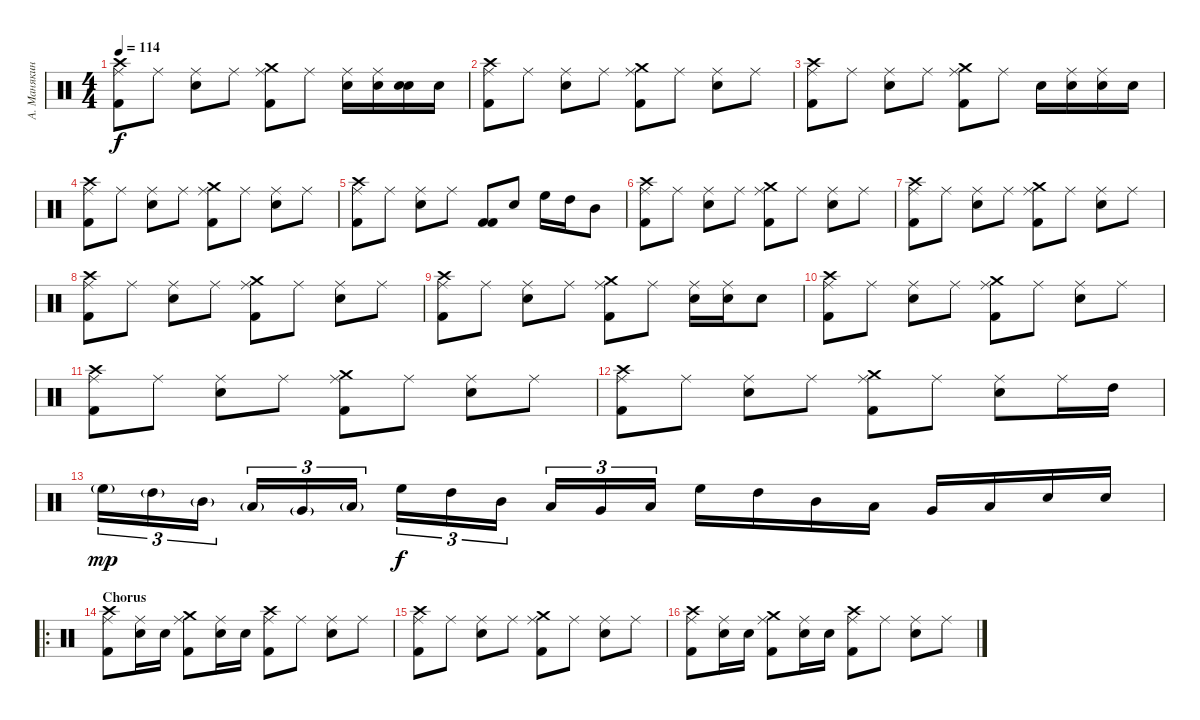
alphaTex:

\track ("А. Манякин" "А. Манякин") {instrument percussion}
\staff {score}
\articulation defaults
\ts (4 4)
\tempo 114
\clef neutral
\ks c
("Kick (hit) 2" "Crash high (hit)" "Ride (middle)").8{dy f} "Ride (middle)".8 ("Electric Snare (hit)" "Ride (middle)").8 "Ride (middle)".8 ("Kick (hit) 2" "Crash medium (hit)" "Ride (middle)").8 "Ride (middle)".8 ("Electric Snare (hit)" "Ride (middle)").16 ("Electric Snare (hit)" "Ride (middle)").16 ("Snare (hit)" "Electric Snare (hit)").16 "Electric Snare (hit)".16 |
("Kick (hit) 2" "Crash high (hit)" "Ride (middle)").8 "Ride (middle)".8 ("Electric Snare (hit)" "Ride (middle)").8 "Ride (middle)".8 ("Kick (hit) 2" "Crash medium (hit)" "Ride (middle)").8 "Ride (middle)".8 ("Electric Snare (hit)" "Ride (middle)").8 "Ride (middle)".8 |
("Kick (hit) 2" "Crash high (hit)" "Ride (middle)").8 "Ride (middle)".8 ("Electric Snare (hit)" "Ride (middle)").8 "Ride (middle)".8 ("Kick (hit) 2" "Crash medium (hit)" "Ride (middle)").8 "Ride (middle)".8 "Electric Snare (hit)".16 ("Electric Snare (hit)" "Ride (middle)").16 ("Electric Snare (hit)" "Ride (middle)").16 "Electric Snare (hit)".16 |
("Kick (hit) 2" "Crash high (hit)" "Ride (middle)").8 "Ride (middle)".8 ("Electric Snare (hit)" "Ride (middle)").8 "Ride (middle)".8 ("Kick (hit) 2" "Crash medium (hit)" "Ride (middle)").8 "Ride (middle)".8 ("Electric Snare (hit)" "Ride (middle)").8 "Ride (middle)".8 |
("Kick (hit) 2" "Crash high (hit)" "Ride (middle)").8 "Ride (middle)".8 ("Electric Snare (hit)" "Ride (middle)").8 "Ride (middle)".8 ("Kick (hit) 2" "Kick (hit) 2").8 "Electric Snare (hit)".8 "High Floor Tom (hit)".16 "High Tom (hit)".16 "Mid Tom (hit)".8 |
("Kick (hit) 2" "Crash high (hit)" "Ride (middle)").8 "Ride (middle)".8 ("Electric Snare (hit)" "Ride (middle)").8 "Ride (middle)".8 ("Kick (hit) 2" "Crash medium (hit)" "Ride (middle)").8 "Ride (middle)".8 ("Electric Snare (hit)" "Ride (middle)").8 "Ride (middle)".8 |
("Kick (hit) 2" "Crash high (hit)" "Ride (middle)").8 "Ride (middle)".8 ("Electric Snare (hit)" "Ride (middle)").8 "Ride (middle)".8 ("Kick (hit) 2" "Crash medium (hit)" "Ride (middle)").8 "Ride (middle)".8 ("Electric Snare (hit)" "Ride (middle)").8 "Ride (middle)".8 |
("Kick (hit) 2" "Crash high (hit)" "Ride (middle)").8 "Ride (middle)".8 ("Electric Snare (hit)" "Ride (middle)").8 "Ride (middle)".8 ("Kick (hit) 2" "Crash medium (hit)" "Ride (middle)").8 "Ride (middle)".8 ("Electric Snare (hit)" "Ride (middle)").8 "Ride (middle)".8 |
("Kick (hit) 2" "Crash high (hit)" "Ride (middle)").8 "Ride (middle)".8 ("Electric Snare (hit)" "Ride (middle)").8 "Ride (middle)".8 ("Kick (hit) 2" "Crash medium (hit)" "Ride (middle)").8 "Ride (middle)".8 ("Electric Snare (hit)" "Ride (middle)").16 ("Electric Snare (hit)" "Ride (middle)").16 "Electric Snare (hit)".8 |
("Kick (hit) 2" "Crash high (hit)" "Ride (middle)").8 "Ride (middle)".8 ("Electric Snare (hit)" "Ride (middle)").8 "Ride (middle)".8 ("Kick (hit) 2" "Crash medium (hit)" "Ride (middle)").8 "Ride (middle)".8 ("Electric Snare (hit)" "Ride (middle)").8 "Ride (middle)".8 |
("Kick (hit) 2" "Crash high (hit)" "Ride (middle)").8 "Ride (middle)".8 ("Electric Snare (hit)" "Ride (middle)").8 "Ride (middle)".8 ("Kick (hit) 2" "Crash medium (hit)" "Ride (middle)").8 "Ride (middle)".8 ("Electric Snare (hit)" "Ride (middle)").8 "Ride (middle)".8 |
("Kick (hit) 2" "Crash high (hit)" "Ride (middle)").8 "Ride (middle)".8 ("Electric Snare (hit)" "Ride (middle)").8 "Ride (middle)".8 ("Kick (hit) 2" "Crash medium (hit)" "Ride (middle)").8 "Ride (middle)".8 ("Electric Snare (hit)" "Ride (middle)").8 "Ride (middle)".16 "High Tom (hit)".16 |
"High Floor Tom (hit)"{g}.16{tu (3 2) dy mp} "High Tom (hit)"{g}.16{tu (3 2)} "Mid Tom (hit)"{g}.16{tu (3 2)} "Low Tom (hit)"{g}.16{tu (3 2)} "Very Low Tom (hit)"{g}.16{tu (3 2)} "Low Floor Tom (hit)"{g}.16{tu (3 2)} "High Floor Tom (hit)".16{tu (3 2) dy f} "High Tom (hit)".16{tu (3 2)} "Mid Tom (hit)".16{tu (3 2)} "Low Tom (hit)".16{tu (3 2)} "Very Low Tom (hit)".16{tu (3 2)} "Low Floor Tom (hit)".16{tu (3 2)} "High Floor Tom (hit)".16 "High Tom (hit)".16 "Mid Tom (hit)".16 "Low Tom (hit)".16 "Very Low Tom (hit)".16 "Low Floor Tom (hit)".16 "Electric Snare (hit)".16 "Electric Snare (hit)".16 |
\ro
\section ("" "Chorus")
("Kick (hit) 2" "Crash high (hit)" "Ride (middle)").8 ("Electric Snare (hit)" "Ride (middle)").16 "Electric Snare (hit)".16 ("Kick (hit) 2" "Crash medium (hit)" "Ride (middle)").8 ("Electric Snare (hit)" "Ride (middle)").16 "Electric Snare (hit)".16 ("Kick (hit) 2" "Crash high (hit)" "Ride (middle)").8 "Ride (middle)".8 ("Electric Snare (hit)" "Ride (middle)").8 "Ride (middle)".8 |
("Kick (hit) 2" "Crash high (hit)" "Ride (middle)").8 "Ride (middle)".8 ("Electric Snare (hit)" "Ride (middle)").8 "Ride (middle)".8 ("Kick (hit) 2" "Crash medium (hit)" "Ride (middle)").8 "Ride (middle)".8 ("Electric Snare (hit)" "Ride (middle)").8 "Ride (middle)".8 |
("Kick (hit) 2" "Crash high (hit)" "Ride (middle)").8 ("Electric Snare (hit)" "Ride (middle)").16 "Electric Snare (hit)".16 ("Kick (hit) 2" "Crash medium (hit)" "Ride (middle)").8 ("Electric Snare (hit)" "Ride (middle)").16 "Electric Snare (hit)".16 ("Kick (hit) 2" "Crash high (hit)" "Ride (middle)").8 "Ride (middle)".8 ("Electric Snare (hit)" "Ride (middle)").8 "Ride (middle)".8
